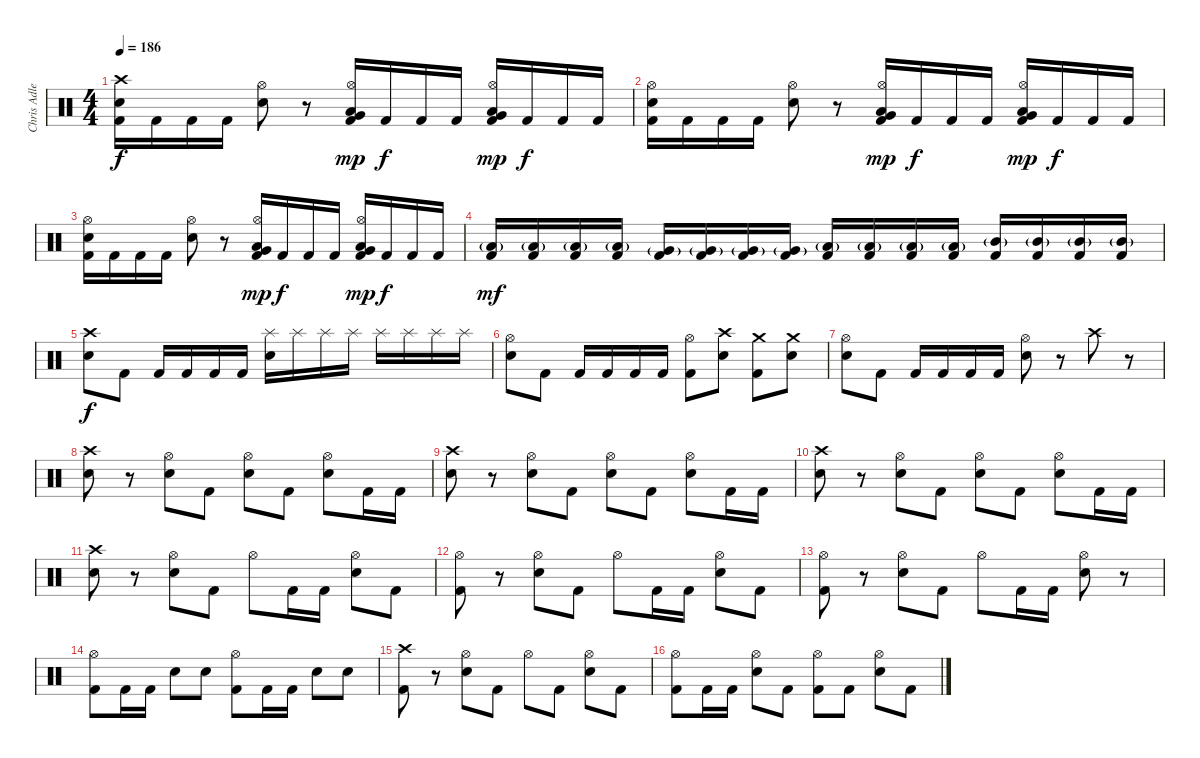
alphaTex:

\track ("Chris Adler" "Chris Adle") {instrument percussion}
\staff {score}
\articulation defaults
\ts (4 4)
\tempo 186
\clef neutral
\ks c
("Crash high (hit)" "Electric Snare (hit)" "Kick (hit) 2").16{dy f} "Kick (hit) 2".16 "Kick (hit) 2".16 "Kick (hit) 2".16 ("Hi-Hat (open)" "Electric Snare (hit)").8 r.8 ("Hi-Hat (open)" "Very Low Tom (hit)" "Low Floor Tom (hit)" "Kick (hit) 2").16{dy mp} "Kick (hit) 2".16{dy f} "Kick (hit) 2".16 "Kick (hit) 2".16 ("Hi-Hat (open)" "Very Low Tom (hit)" "Low Floor Tom (hit)" "Kick (hit) 2").16{dy mp} "Kick (hit) 2".16{dy f} "Kick (hit) 2".16 "Kick (hit) 2".16 |
("Hi-Hat (open)" "Electric Snare (hit)" "Kick (hit) 2").16 "Kick (hit) 2".16 "Kick (hit) 2".16 "Kick (hit) 2".16 ("Hi-Hat (open)" "Electric Snare (hit)").8 r.8 ("Hi-Hat (open)" "Very Low Tom (hit)" "Low Floor Tom (hit)" "Kick (hit) 2").16{dy mp} "Kick (hit) 2".16{dy f} "Kick (hit) 2".16 "Kick (hit) 2".16 ("Hi-Hat (open)" "Very Low Tom (hit)" "Low Floor Tom (hit)" "Kick (hit) 2").16{dy mp} "Kick (hit) 2".16{dy f} "Kick (hit) 2".16 "Kick (hit) 2".16 |
("Hi-Hat (open)" "Electric Snare (hit)" "Kick (hit) 2").16 "Kick (hit) 2".16 "Kick (hit) 2".16 "Kick (hit) 2".16 ("Hi-Hat (open)" "Electric Snare (hit)").8 r.8 ("Hi-Hat (open)" "Very Low Tom (hit)" "Low Floor Tom (hit)" "Kick (hit) 2").16{dy mp} "Kick (hit) 2".16{dy f} "Kick (hit) 2".16 "Kick (hit) 2".16 ("Hi-Hat (open)" "Very Low Tom (hit)" "Low Floor Tom (hit)" "Kick (hit) 2").16{dy mp} "Kick (hit) 2".16{dy f} "Kick (hit) 2".16 "Kick (hit) 2".16 |
("Low Floor Tom (hit)"{g} "Kick (hit) 2").16{dy mf} ("Low Floor Tom (hit)"{g} "Kick (hit) 2").16 ("Low Floor Tom (hit)"{g} "Kick (hit) 2").16 ("Low Floor Tom (hit)"{g} "Kick (hit) 2").16 ("Very Low Tom (hit)"{g} "Kick (hit) 2").16 ("Very Low Tom (hit)"{g} "Kick (hit) 2").16 ("Very Low Tom (hit)"{g} "Kick (hit) 2").16 ("Very Low Tom (hit)"{g} "Kick (hit) 2").16 ("Low Tom (hit)"{g} "Kick (hit) 2").16 ("Low Tom (hit)"{g} "Kick (hit) 2").16 ("Low Tom (hit)"{g} "Kick (hit) 2").16 ("Low Tom (hit)"{g} "Kick (hit) 2").16 ("Mid Tom (hit)"{g} "Kick (hit) 2").16 ("Mid Tom (hit)"{g} "Kick (hit) 2").16 ("Mid Tom (hit)"{g} "Kick (hit) 2").16 ("Mid Tom (hit)"{g} "Kick (hit) 2").16 |
("Crash high (hit)" "Electric Snare (hit)").8{dy f} "Kick (hit) 2".8 "Kick (hit) 2".16 "Kick (hit) 2".16 "Kick (hit) 2".16 "Kick (hit) 2".16 ("Splash (hit)" "Electric Snare (hit)").16 "Splash (hit)".16 "Splash (hit)".16 "Splash (hit)".16 "Splash (hit)".16 "Splash (hit)".16 "Splash (hit)".16 "Splash (hit)".16 |
("Hi-Hat (open)" "Electric Snare (hit)").8 "Kick (hit) 2".8 "Kick (hit) 2".16 "Kick (hit) 2".16 "Kick (hit) 2".16 "Kick (hit) 2".16 ("Hi-Hat (open)" "Kick (hit) 2").8 ("Crash high (hit)" "Electric Snare (hit)").8 ("Crash medium (hit)" "Kick (hit) 2").8 ("Crash medium (hit)" "Electric Snare (hit)").8 |
("Hi-Hat (open)" "Electric Snare (hit)").8 "Kick (hit) 2".8 "Kick (hit) 2".16 "Kick (hit) 2".16 "Kick (hit) 2".16 "Kick (hit) 2".16 ("Hi-Hat (open)" "Electric Snare (hit)").8 r.8 "Crash high (hit)".8 r.8 |
("Crash high (hit)" "Electric Snare (hit)").8 r.8 ("Hi-Hat (open)" "Electric Snare (hit)").8 "Kick (hit) 2".8 ("Hi-Hat (open)" "Electric Snare (hit)").8 "Kick (hit) 2".8 ("Hi-Hat (open)" "Electric Snare (hit)").8 "Kick (hit) 2".16 "Kick (hit) 2".16 |
("Crash high (hit)" "Electric Snare (hit)").8 r.8 ("Hi-Hat (open)" "Electric Snare (hit)").8 "Kick (hit) 2".8 ("Hi-Hat (open)" "Electric Snare (hit)").8 "Kick (hit) 2".8 ("Hi-Hat (open)" "Electric Snare (hit)").8 "Kick (hit) 2".16 "Kick (hit) 2".16 |
("Crash high (hit)" "Electric Snare (hit)").8 r.8 ("Hi-Hat (open)" "Electric Snare (hit)").8 "Kick (hit) 2".8 ("Hi-Hat (open)" "Electric Snare (hit)").8 "Kick (hit) 2".8 ("Hi-Hat (open)" "Electric Snare (hit)").8 "Kick (hit) 2".16 "Kick (hit) 2".16 |
("Crash high (hit)" "Electric Snare (hit)").8 r.8 ("Hi-Hat (open)" "Electric Snare (hit)").8 "Kick (hit) 2".8 "Hi-Hat (open)".8 "Kick (hit) 2".16 "Kick (hit) 2".16 ("Hi-Hat (open)" "Electric Snare (hit)").8 "Kick (hit) 2".8 |
("Hi-Hat (open)" "Kick (hit) 2").8 r.8 ("Hi-Hat (open)" "Electric Snare (hit)").8 "Kick (hit) 2".8 "Hi-Hat (open)".8 "Kick (hit) 2".16 "Kick (hit) 2".16 ("Hi-Hat (open)" "Electric Snare (hit)").8 "Kick (hit) 2".8 |
("Hi-Hat (open)" "Kick (hit) 2").8 r.8 ("Hi-Hat (open)" "Electric Snare (hit)").8 "Kick (hit) 2".8 "Hi-Hat (open)".8 "Kick (hit) 2".16 "Kick (hit) 2".16 ("Hi-Hat (open)" "Electric Snare (hit)").8 r.8 |
("Hi-Hat (open)" "Kick (hit) 2").8 "Kick (hit) 2".16 "Kick (hit) 2".16 "Electric Snare (hit)".8 "Electric Snare (hit)".8 ("Hi-Hat (open)" "Kick (hit) 2").8 "Kick (hit) 2".16 "Kick (hit) 2".16 "Electric Snare (hit)".8 "Electric Snare (hit)".8 |
("Crash high (hit)" "Kick (hit) 2").8 r.8 ("Hi-Hat (open)" "Electric Snare (hit)").8 "Kick (hit) 2".8 "Hi-Hat (open)".8 "Kick (hit) 2".8 ("Hi-Hat (open)" "Electric Snare (hit)").8 "Kick (hit) 2".8 |
("Hi-Hat (open)" "Kick (hit) 2").8 "Kick (hit) 2".16 "Kick (hit) 2".16 ("Hi-Hat (open)" "Electric Snare (hit)").8 "Kick (hit) 2".8 ("Hi-Hat (open)" "Kick (hit) 2").8 "Kick (hit) 2".8 ("Hi-Hat (open)" "Electric Snare (hit)").8 "Kick (hit) 2".8
